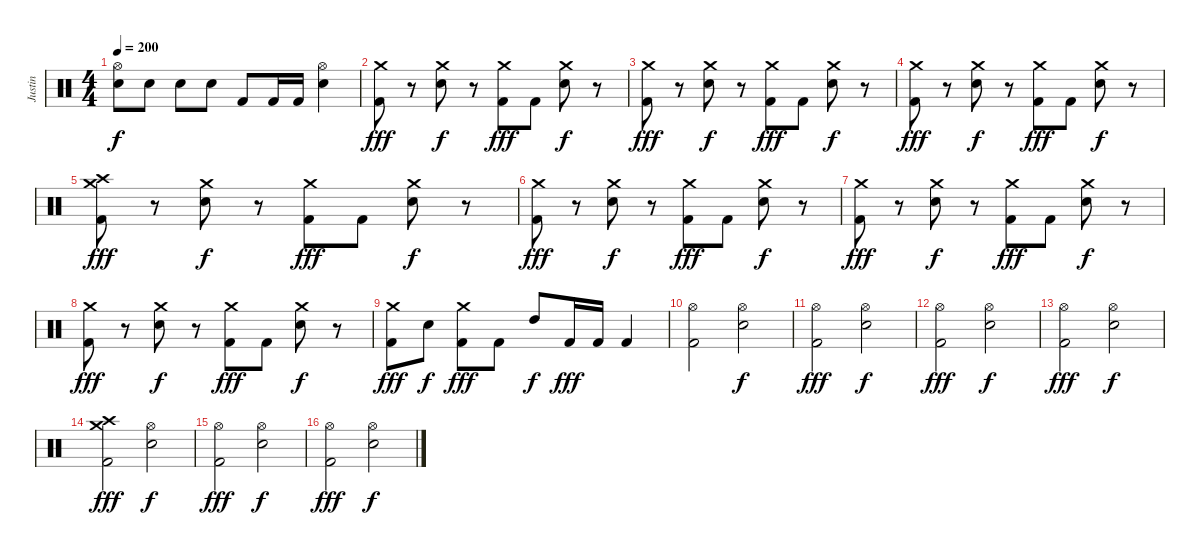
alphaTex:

\track ("Justin" "Justin") {instrument percussion}
\staff {score}
\articulation defaults
\ts (4 4)
\tempo 200
\clef neutral
\ks c
("Hi-Hat (open)" "Electric Snare (hit)").8{dy f} "Electric Snare (hit)".8 "Electric Snare (hit)".8 "Electric Snare (hit)".8 "Kick (hit) 2".8 "Kick (hit) 2".16 "Kick (hit) 2".16 ("Hi-Hat (open)" "Electric Snare (hit)").4 |
("Crash medium (hit)" "Kick (hit) 2").8{dy fff} r.8 ("Crash medium (hit)" "Electric Snare (hit)").8{dy f} r.8 ("Crash medium (hit)" "Kick (hit) 2").8{dy fff} "Kick (hit) 2".8 ("Crash medium (hit)" "Electric Snare (hit)").8{dy f} r.8 |
("Crash medium (hit)" "Kick (hit) 2").8{dy fff} r.8 ("Crash medium (hit)" "Electric Snare (hit)").8{dy f} r.8 ("Crash medium (hit)" "Kick (hit) 2").8{dy fff} "Kick (hit) 2".8 ("Crash medium (hit)" "Electric Snare (hit)").8{dy f} r.8 |
("Crash medium (hit)" "Kick (hit) 2").8{dy fff} r.8 ("Crash medium (hit)" "Electric Snare (hit)").8{dy f} r.8 ("Crash medium (hit)" "Kick (hit) 2").8{dy fff} "Kick (hit) 2".8 ("Crash medium (hit)" "Electric Snare (hit)").8{dy f} r.8 |
("Crash medium (hit)" "Crash high (hit)" "Kick (hit) 2").8{dy fff} r.8 ("Crash medium (hit)" "Electric Snare (hit)").8{dy f} r.8 ("Crash medium (hit)" "Kick (hit) 2").8{dy fff} "Kick (hit) 2".8 ("Crash medium (hit)" "Electric Snare (hit)").8{dy f} r.8 |
("Crash medium (hit)" "Kick (hit) 2").8{dy fff} r.8 ("Crash medium (hit)" "Electric Snare (hit)").8{dy f} r.8 ("Crash medium (hit)" "Kick (hit) 2").8{dy fff} "Kick (hit) 2".8 ("Crash medium (hit)" "Electric Snare (hit)").8{dy f} r.8 |
("Crash medium (hit)" "Kick (hit) 2").8{dy fff} r.8 ("Crash medium (hit)" "Electric Snare (hit)").8{dy f} r.8 ("Crash medium (hit)" "Kick (hit) 2").8{dy fff} "Kick (hit) 2".8 ("Crash medium (hit)" "Electric Snare (hit)").8{dy f} r.8 |
("Crash medium (hit)" "Kick (hit) 2").8{dy fff} r.8 ("Crash medium (hit)" "Electric Snare (hit)").8{dy f} r.8 ("Crash medium (hit)" "Kick (hit) 2").8{dy fff} "Kick (hit) 2".8 ("Crash medium (hit)" "Electric Snare (hit)").8{dy f} r.8 |
("Crash medium (hit)" "Kick (hit) 2").8{dy fff} "Electric Snare (hit)".8{dy f} ("Crash medium (hit)" "Kick (hit) 2").8{dy fff} "Kick (hit) 2".8 "High Tom (hit)".8{dy f} "Kick (hit) 2".16{dy fff} "Kick (hit) 2".16 "Kick (hit) 2".4 |
("Hi-Hat (open)" "Kick (hit) 2").2 ("Hi-Hat (open)" "Electric Snare (hit)").2{dy f} |
("Hi-Hat (open)" "Kick (hit) 2").2{dy fff} ("Hi-Hat (open)" "Electric Snare (hit)").2{dy f} |
("Hi-Hat (open)" "Kick (hit) 2").2{dy fff} ("Hi-Hat (open)" "Electric Snare (hit)").2{dy f} |
("Hi-Hat (open)" "Kick (hit) 2").2{dy fff} ("Hi-Hat (open)" "Electric Snare (hit)").2{dy f} |
("Crash medium (hit)" "Crash high (hit)" "Kick (hit) 2").2{dy fff} ("Hi-Hat (open)" "Electric Snare (hit)").2{dy f} |
("Hi-Hat (open)" "Kick (hit) 2").2{dy fff} ("Hi-Hat (open)" "Electric Snare (hit)").2{dy f} |
("Hi-Hat (open)" "Kick (hit) 2").2{dy fff} ("Hi-Hat (open)" "Electric Snare (hit)").2{dy f}
